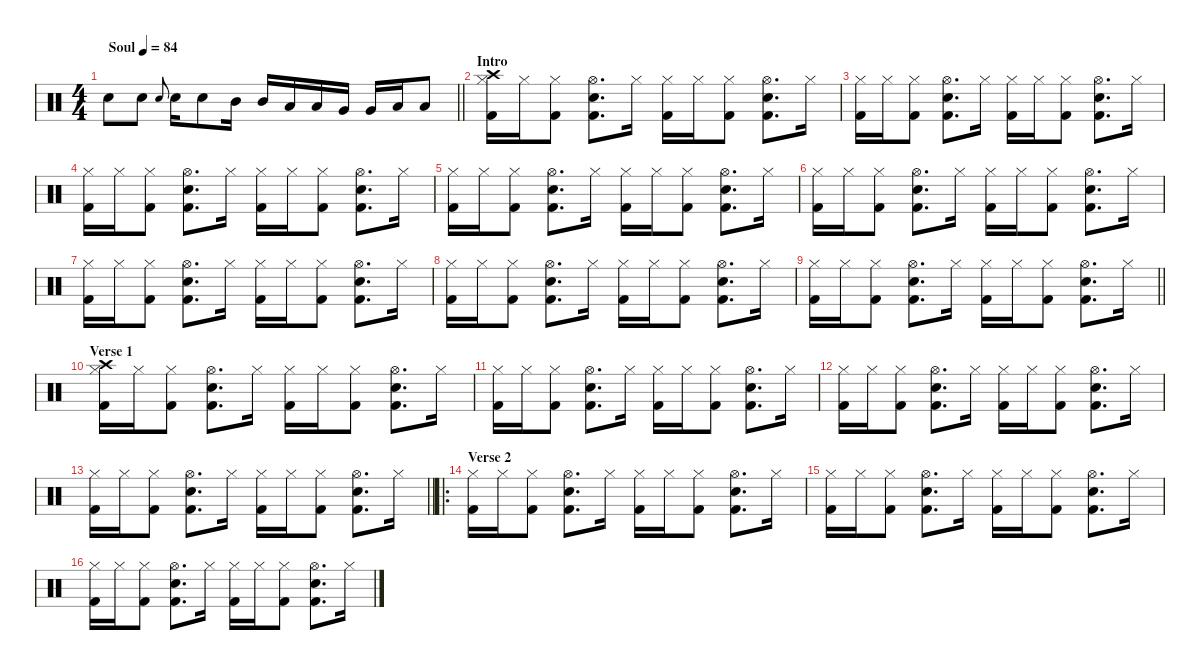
\defaultSystemsLayout 4
\hideDynamics
\bracketExtendMode nobrackets
\singleTrackTrackNamePolicy hidden
\multiTrackTrackNamePolicy hidden
\firstSystemTrackNameMode fullname
\firstSystemTrackNameOrientation horizontal
\otherSystemsTrackNameOrientation horizontal
\track ("Drums" "drm.") {defaultSystemsLayout 4 instrument percussion}
\staff {score}
\articulation defaults
\ts (4 4)
\beaming (8 2 2 2 2)
\tempo (84 "Soul")
\clef neutral
\barLineRight lightlight
\ks c "Snare (hit) 2".8{dy f beam Down} "Snare (hit) 2".8{beam Down} "Snare (hit) 2".8{gr onbeat dy mf beam Up} "Snare (hit) 2".16{dy f beam Down} "Snare (hit) 2".8{beam Down} "Mid Tom (hit)".16{beam Down} "Mid Tom (hit)".16{beam Up} "Low Tom (hit)".16{beam Up} "Low Tom (hit)".16{beam Up} "Very Low Tom (hit)".16{beam Up} "Very Low Tom (hit)".16{beam Up} "Low Floor Tom (hit)".16{beam Up} "Low Floor Tom (hit)".8{beam Up}
|
\section ("" "Intro")
("Kick (hit) 2" "Hi-Hat (closed)" "Crash high (hit)").16{beam Down} "Hi-Hat (closed)".16{beam Down} ("Kick (hit) 2" "Hi-Hat (closed)").8{beam Down} ("Kick (hit) 2" "Hi-Hat (open)" "Snare (hit) 2").8{d beam Down} "Hi-Hat (closed)".16{beam Down} ("Kick (hit) 2" "Hi-Hat (closed)").16{beam Down} "Hi-Hat (closed)".16{beam Down} ("Kick (hit) 2" "Hi-Hat (closed)").8{beam Down} ("Kick (hit) 2" "Hi-Hat (open)" "Snare (hit) 2").8{d beam Down} "Hi-Hat (closed)".16{beam Down} |
("Kick (hit) 2" "Hi-Hat (closed)").16{beam Down} "Hi-Hat (closed)".16{beam Down} ("Kick (hit) 2" "Hi-Hat (closed)").8{beam Down} ("Kick (hit) 2" "Hi-Hat (open)" "Snare (hit) 2").8{d beam Down} "Hi-Hat (closed)".16{beam Down} ("Kick (hit) 2" "Hi-Hat (closed)").16{beam Down} "Hi-Hat (closed)".16{beam Down} ("Kick (hit) 2" "Hi-Hat (closed)").8{beam Down} ("Kick (hit) 2" "Hi-Hat (open)" "Snare (hit) 2").8{d beam Down} "Hi-Hat (closed)".16{beam Down} |
("Kick (hit) 2" "Hi-Hat (closed)").16{beam Down} "Hi-Hat (closed)".16{beam Down} ("Kick (hit) 2" "Hi-Hat (closed)").8{beam Down} ("Kick (hit) 2" "Hi-Hat (open)" "Snare (hit) 2").8{d beam Down} "Hi-Hat (closed)".16{beam Down} ("Kick (hit) 2" "Hi-Hat (closed)").16{beam Down} "Hi-Hat (closed)".16{beam Down} ("Kick (hit) 2" "Hi-Hat (closed)").8{beam Down} ("Kick (hit) 2" "Hi-Hat (open)" "Snare (hit) 2").8{d beam Down} "Hi-Hat (closed)".16{beam Down} |
("Kick (hit) 2" "Hi-Hat (closed)").16{beam Down} "Hi-Hat (closed)".16{beam Down} ("Kick (hit) 2" "Hi-Hat (closed)").8{beam Down} ("Kick (hit) 2" "Hi-Hat (open)" "Snare (hit) 2").8{d beam Down} "Hi-Hat (closed)".16{beam Down} ("Kick (hit) 2" "Hi-Hat (closed)").16{beam Down} "Hi-Hat (closed)".16{beam Down} ("Kick (hit) 2" "Hi-Hat (closed)").8{beam Down} ("Kick (hit) 2" "Hi-Hat (open)" "Snare (hit) 2").8{d beam Down} "Hi-Hat (closed)".16{beam Down} |
("Kick (hit) 2" "Hi-Hat (closed)").16{beam Down} "Hi-Hat (closed)".16{beam Down} ("Kick (hit) 2" "Hi-Hat (closed)").8{beam Down} ("Kick (hit) 2" "Hi-Hat (open)" "Snare (hit) 2").8{d beam Down} "Hi-Hat (closed)".16{beam Down} ("Kick (hit) 2" "Hi-Hat (closed)").16{beam Down} "Hi-Hat (closed)".16{beam Down} ("Kick (hit) 2" "Hi-Hat (closed)").8{beam Down} ("Kick (hit) 2" "Hi-Hat (open)" "Snare (hit) 2").8{d beam Down} "Hi-Hat (closed)".16{beam Down} |
("Kick (hit) 2" "Hi-Hat (closed)").16{beam Down} "Hi-Hat (closed)".16{beam Down} ("Kick (hit) 2" "Hi-Hat (closed)").8{beam Down} ("Kick (hit) 2" "Hi-Hat (open)" "Snare (hit) 2").8{d beam Down} "Hi-Hat (closed)".16{beam Down} ("Kick (hit) 2" "Hi-Hat (closed)").16{beam Down} "Hi-Hat (closed)".16{beam Down} ("Kick (hit) 2" "Hi-Hat (closed)").8{beam Down} ("Kick (hit) 2" "Hi-Hat (open)" "Snare (hit) 2").8{d beam Down} "Hi-Hat (closed)".16{beam Down} |
("Kick (hit) 2" "Hi-Hat (closed)").16{beam Down} "Hi-Hat (closed)".16{beam Down} ("Kick (hit) 2" "Hi-Hat (closed)").8{beam Down} ("Kick (hit) 2" "Hi-Hat (open)" "Snare (hit) 2").8{d beam Down} "Hi-Hat (closed)".16{beam Down} ("Kick (hit) 2" "Hi-Hat (closed)").16{beam Down} "Hi-Hat (closed)".16{beam Down} ("Kick (hit) 2" "Hi-Hat (closed)").8{beam Down} ("Kick (hit) 2" "Hi-Hat (open)" "Snare (hit) 2").8{d beam Down} "Hi-Hat (closed)".16{beam Down} |
\barLineRight lightlight
("Kick (hit) 2" "Hi-Hat (closed)").16{beam Down} "Hi-Hat (closed)".16{beam Down} ("Kick (hit) 2" "Hi-Hat (closed)").8{beam Down} ("Kick (hit) 2" "Hi-Hat (open)" "Snare (hit) 2").8{d beam Down} "Hi-Hat (closed)".16{beam Down} ("Kick (hit) 2" "Hi-Hat (closed)").16{beam Down} "Hi-Hat (closed)".16{beam Down} ("Kick (hit) 2" "Hi-Hat (closed)").8{beam Down} ("Kick (hit) 2" "Hi-Hat (open)" "Snare (hit) 2").8{d beam Down} "Hi-Hat (closed)".16{beam Down} |
\section ("" "Verse 1")
("Kick (hit) 2" "Hi-Hat (closed)" "Crash high (hit)").16{beam Down} "Hi-Hat (closed)".16{beam Down} ("Kick (hit) 2" "Hi-Hat (closed)").8{beam Down} ("Kick (hit) 2" "Hi-Hat (open)" "Snare (hit) 2").8{d beam Down} "Hi-Hat (closed)".16{beam Down} ("Kick (hit) 2" "Hi-Hat (closed)").16{beam Down} "Hi-Hat (closed)".16{beam Down} ("Kick (hit) 2" "Hi-Hat (closed)").8{beam Down} ("Kick (hit) 2" "Hi-Hat (open)" "Snare (hit) 2").8{d beam Down} "Hi-Hat (closed)".16{beam Down} |
("Kick (hit) 2" "Hi-Hat (closed)").16{beam Down} "Hi-Hat (closed)".16{beam Down} ("Kick (hit) 2" "Hi-Hat (closed)").8{beam Down} ("Kick (hit) 2" "Hi-Hat (open)" "Snare (hit) 2").8{d beam Down} "Hi-Hat (closed)".16{beam Down} ("Kick (hit) 2" "Hi-Hat (closed)").16{beam Down} "Hi-Hat (closed)".16{beam Down} ("Kick (hit) 2" "Hi-Hat (closed)").8{beam Down} ("Kick (hit) 2" "Hi-Hat (open)" "Snare (hit) 2").8{d beam Down} "Hi-Hat (closed)".16{beam Down} |
("Kick (hit) 2" "Hi-Hat (closed)").16{beam Down} "Hi-Hat (closed)".16{beam Down} ("Kick (hit) 2" "Hi-Hat (closed)").8{beam Down} ("Kick (hit) 2" "Hi-Hat (open)" "Snare (hit) 2").8{d beam Down} "Hi-Hat (closed)".16{beam Down} ("Kick (hit) 2" "Hi-Hat (closed)").16{beam Down} "Hi-Hat (closed)".16{beam Down} ("Kick (hit) 2" "Hi-Hat (closed)").8{beam Down} ("Kick (hit) 2" "Hi-Hat (open)" "Snare (hit) 2").8{d beam Down} "Hi-Hat (closed)".16{beam Down} |
\barLineRight lightlight
("Kick (hit) 2" "Hi-Hat (closed)").16{beam Down} "Hi-Hat (closed)".16{beam Down} ("Kick (hit) 2" "Hi-Hat (closed)").8{beam Down} ("Kick (hit) 2" "Hi-Hat (open)" "Snare (hit) 2").8{d beam Down} "Hi-Hat (closed)".16{beam Down} ("Kick (hit) 2" "Hi-Hat (closed)").16{beam Down} "Hi-Hat (closed)".16{beam Down} ("Kick (hit) 2" "Hi-Hat (closed)").8{beam Down} ("Kick (hit) 2" "Hi-Hat (open)" "Snare (hit) 2").8{d beam Down} "Hi-Hat (closed)".16{beam Down} |
\ro
\section ("" "Verse 2")
("Kick (hit) 2" "Hi-Hat (closed)").16{beam Down} "Hi-Hat (closed)".16{beam Down} ("Kick (hit) 2" "Hi-Hat (closed)").8{beam Down} ("Kick (hit) 2" "Hi-Hat (open)" "Snare (hit) 2").8{d beam Down} "Hi-Hat (closed)".16{beam Down} ("Kick (hit) 2" "Hi-Hat (closed)").16{beam Down} "Hi-Hat (closed)".16{beam Down} ("Kick (hit) 2" "Hi-Hat (closed)").8{beam Down} ("Kick (hit) 2" "Hi-Hat (open)" "Snare (hit) 2").8{d beam Down} "Hi-Hat (closed)".16{beam Down} |
("Kick (hit) 2" "Hi-Hat (closed)").16{beam Down} "Hi-Hat (closed)".16{beam Down} ("Kick (hit) 2" "Hi-Hat (closed)").8{beam Down} ("Kick (hit) 2" "Hi-Hat (open)" "Snare (hit) 2").8{d beam Down} "Hi-Hat (closed)".16{beam Down} ("Kick (hit) 2" "Hi-Hat (closed)").16{beam Down} "Hi-Hat (closed)".16{beam Down} ("Kick (hit) 2" "Hi-Hat (closed)").8{beam Down} ("Kick (hit) 2" "Hi-Hat (open)" "Snare (hit) 2").8{d beam Down} "Hi-Hat (closed)".16{beam Down} |
("Kick (hit) 2" "Hi-Hat (closed)").16{beam Down} "Hi-Hat (closed)".16{beam Down} ("Kick (hit) 2" "Hi-Hat (closed)").8{beam Down} ("Kick (hit) 2" "Hi-Hat (open)" "Snare (hit) 2").8{d beam Down} "Hi-Hat (closed)".16{beam Down} ("Kick (hit) 2" "Hi-Hat (closed)").16{beam Down} "Hi-Hat (closed)".16{beam Down} ("Kick (hit) 2" "Hi-Hat (closed)").8{beam Down} ("Kick (hit) 2" "Hi-Hat (open)" "Snare (hit) 2").8{d beam Down} "Hi-Hat (closed)".16{beam Down}
